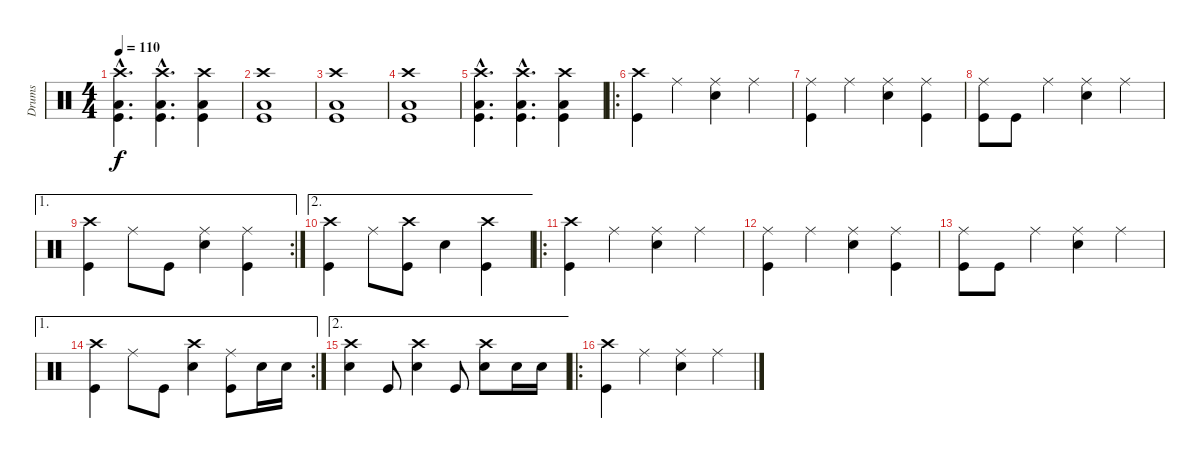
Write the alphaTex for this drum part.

\track ("Drums" "Drums") {instrument percussion}
\staff {score}
\articulation defaults
\ts (4 4)
\tempo 110
\clef neutral
\ks c
("Crash high (hit)"{hac} "Low Floor Tom (hit)"{hac} "Kick (hit)"{hac}).4{d dy f} ("Crash high (hit)"{hac} "Low Floor Tom (hit)"{hac} "Kick (hit)"{hac}).4{d} ("Crash high (hit)" "Low Floor Tom (hit)" "Kick (hit)").4 |
("Crash high (hit)" "Low Floor Tom (hit)" "Kick (hit)").1 |
("Crash high (hit)" "Low Floor Tom (hit)" "Kick (hit)").1 |
("Crash high (hit)" "Low Floor Tom (hit)" "Kick (hit)").1 |
("Crash high (hit)"{hac} "Low Floor Tom (hit)"{hac} "Kick (hit)"{hac}).4{d} ("Crash high (hit)"{hac} "Low Floor Tom (hit)"{hac} "Kick (hit)"{hac}).4{d} ("Crash high (hit)" "Low Floor Tom (hit)" "Kick (hit)").4 |
\ro
("Crash high (hit)" "Kick (hit)").4 "Ride (middle)".4 ("Ride (middle)" "Electric Snare (hit)").4 "Ride (middle)".4 |
("Ride (middle)" "Kick (hit)").4 "Ride (middle)".4 ("Ride (middle)" "Electric Snare (hit)").4 ("Ride (middle)" "Kick (hit)").4 |
("Ride (middle)" "Kick (hit)").8 "Kick (hit)".8 "Ride (middle)".4 ("Ride (middle)" "Electric Snare (hit)").4 "Ride (middle)".4 |
\ae 1
\rc 2
("Crash high (hit)" "Kick (hit)").4 "Ride (middle)".8 "Kick (hit)".8 ("Ride (middle)" "Electric Snare (hit)").4 ("Ride (middle)" "Kick (hit)").4 |
\ae 2
("Crash high (hit)" "Kick (hit)").4 "Ride (middle)".8 ("Crash high (hit)" "Kick (hit)").8 "Electric Snare (hit)".4 ("Crash high (hit)" "Kick (hit)").4 |
\ro
("Crash high (hit)" "Kick (hit)").4 "Ride (middle)".4 ("Ride (middle)" "Electric Snare (hit)").4 "Ride (middle)".4 |
("Ride (middle)" "Kick (hit)").4 "Ride (middle)".4 ("Ride (middle)" "Electric Snare (hit)").4 ("Ride (middle)" "Kick (hit)").4 |
("Ride (middle)" "Kick (hit)").8 "Kick (hit)".8 "Ride (middle)".4 ("Ride (middle)" "Electric Snare (hit)").4 "Ride (middle)".4 |
\ae 1
\rc 2
("Crash high (hit)" "Kick (hit)").4 "Ride (middle)".8 "Kick (hit)".8 ("Crash high (hit)" "Electric Snare (hit)").4 ("Ride (middle)" "Kick (hit)").8 "Electric Snare (hit)".16 "Electric Snare (hit)".16 |
\ae 2
("Crash high (hit)" "Electric Snare (hit)").4 "Kick (hit)".8 ("Crash high (hit)" "Electric Snare (hit)").4 "Kick (hit)".8 ("Crash high (hit)" "Electric Snare (hit)").8 "Electric Snare (hit)".16 "Electric Snare (hit)".16 |
\ro
("Crash high (hit)" "Kick (hit)").4 "Ride (middle)".4 ("Ride (middle)" "Electric Snare (hit)").4 "Ride (middle)".4
